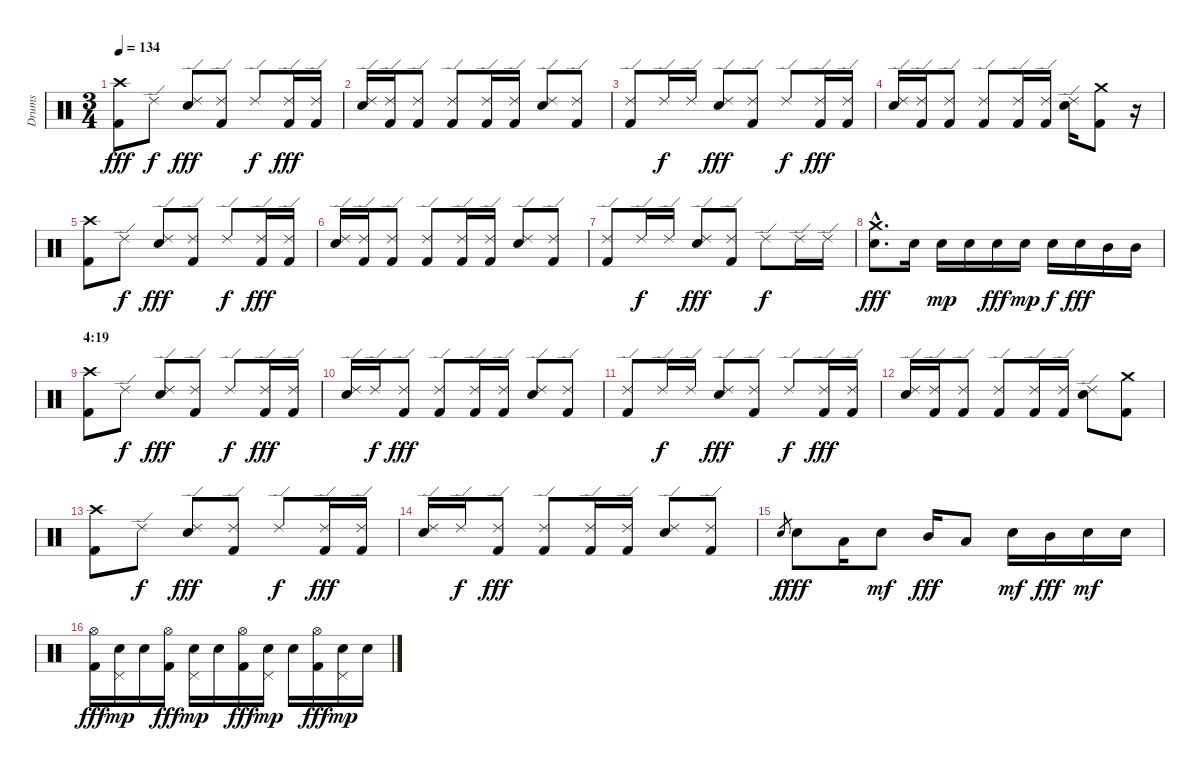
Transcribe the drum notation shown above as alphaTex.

\track ("Drums" "Drums") {instrument percussion}
\staff {score}
\articulation defaults
\ts (3 4)
\tempo 134
\clef neutral
\ks c
("Kick (hit) 2" "Crash high (hit)").8{dy fff} "Ride (edge) 2".8{dy f} ("Ride (edge) 2" "Snare (hit) 2").8{dy fff} ("Ride (edge) 2" "Kick (hit) 2").8 "Ride (edge) 2".8{dy f} ("Ride (edge) 2" "Kick (hit) 2").16{dy fff} ("Ride (edge) 2" "Kick (hit) 2").16 |
("Ride (edge) 2" "Snare (hit) 2").16 ("Ride (edge) 2" "Kick (hit) 2").16 ("Ride (edge) 2" "Kick (hit) 2").8 ("Ride (edge) 2" "Kick (hit) 2").8 ("Ride (edge) 2" "Kick (hit) 2").16 ("Ride (edge) 2" "Kick (hit) 2").16 ("Ride (edge) 2" "Snare (hit) 2").8 ("Ride (edge) 2" "Kick (hit) 2").8 |
("Ride (edge) 2" "Kick (hit) 2").8 "Ride (edge) 2".16{dy f} "Ride (edge) 2".16 ("Ride (edge) 2" "Snare (hit) 2").8{dy fff} ("Ride (edge) 2" "Kick (hit) 2").8 "Ride (edge) 2".8{dy f} ("Ride (edge) 2" "Kick (hit) 2").16{dy fff} ("Ride (edge) 2" "Kick (hit) 2").16 |
("Ride (edge) 2" "Snare (hit) 2").16 ("Ride (edge) 2" "Kick (hit) 2").16 ("Ride (edge) 2" "Kick (hit) 2").8 ("Ride (edge) 2" "Kick (hit) 2").8 ("Ride (edge) 2" "Kick (hit) 2").16 ("Ride (edge) 2" "Kick (hit) 2").16 ("Ride (edge) 2" "Snare (hit) 2").16 ("Crash medium (hit)" "Kick (hit) 2").8 r.16 |
("Kick (hit) 2" "Crash high (hit)").8 "Ride (edge) 2".8{dy f} ("Ride (edge) 2" "Snare (hit) 2").8{dy fff} ("Ride (edge) 2" "Kick (hit) 2").8 "Ride (edge) 2".8{dy f} ("Ride (edge) 2" "Kick (hit) 2").16{dy fff} ("Ride (edge) 2" "Kick (hit) 2").16 |
("Ride (edge) 2" "Snare (hit) 2").16 ("Ride (edge) 2" "Kick (hit) 2").16 ("Ride (edge) 2" "Kick (hit) 2").8 ("Ride (edge) 2" "Kick (hit) 2").8 ("Ride (edge) 2" "Kick (hit) 2").16 ("Ride (edge) 2" "Kick (hit) 2").16 ("Ride (edge) 2" "Snare (hit) 2").8 ("Ride (edge) 2" "Kick (hit) 2").8 |
("Ride (edge) 2" "Kick (hit) 2").8 "Ride (edge) 2".16{dy f} "Ride (edge) 2".16 ("Ride (edge) 2" "Snare (hit) 2").8{dy fff} ("Ride (edge) 2" "Kick (hit) 2").8 "Ride (edge) 2".8{dy f} "Ride (edge) 2".16 "Ride (edge) 2".16 |
("Crash medium (hit)"{hac} "Snare (hit) 2"{hac}).8{d dy fff} "Snare (hit) 2".16 "Snare (hit) 2".16{dy mp} "Snare (hit) 2".16 "Snare (hit) 2".16{dy fff} "Snare (hit) 2".16{dy mp} "Snare (hit) 2".16{dy f} "Snare (hit) 2".16{dy fff} "Mid Tom (hit)".16 "Mid Tom (hit)".16 |
\section ("" "4:19")
("Kick (hit) 2" "Crash high (hit)").8 "Ride (edge) 2".8{dy f} ("Ride (edge) 2" "Snare (hit) 2").8{dy fff} ("Ride (edge) 2" "Kick (hit) 2").8 "Ride (edge) 2".8{dy f} ("Ride (edge) 2" "Kick (hit) 2").16{dy fff} ("Ride (edge) 2" "Kick (hit) 2").16 |
("Ride (edge) 2" "Snare (hit) 2").16 "Ride (edge) 2".16{dy f} ("Ride (edge) 2" "Kick (hit) 2").8{dy fff} ("Ride (edge) 2" "Kick (hit) 2").8 ("Ride (edge) 2" "Kick (hit) 2").16 ("Ride (edge) 2" "Kick (hit) 2").16 ("Ride (edge) 2" "Snare (hit) 2").8 ("Ride (edge) 2" "Kick (hit) 2").8 |
("Ride (edge) 2" "Kick (hit) 2").8 "Ride (edge) 2".16{dy f} "Ride (edge) 2".16 ("Ride (edge) 2" "Snare (hit) 2").8{dy fff} ("Ride (edge) 2" "Kick (hit) 2").8 "Ride (edge) 2".8{dy f} ("Ride (edge) 2" "Kick (hit) 2").16{dy fff} ("Ride (edge) 2" "Kick (hit) 2").16 |
("Ride (edge) 2" "Snare (hit) 2").16 ("Ride (edge) 2" "Kick (hit) 2").16 ("Ride (edge) 2" "Kick (hit) 2").8 ("Ride (edge) 2" "Kick (hit) 2").8 ("Ride (edge) 2" "Kick (hit) 2").16 ("Ride (edge) 2" "Kick (hit) 2").16 ("Ride (edge) 2" "Snare (hit) 2").8 ("Crash medium (hit)" "Kick (hit) 2").8 |
("Kick (hit) 2" "Crash high (hit)").8 "Ride (edge) 2".8{dy f} ("Ride (edge) 2" "Snare (hit) 2").8{dy fff} ("Ride (edge) 2" "Kick (hit) 2").8 "Ride (edge) 2".8{dy f} ("Ride (edge) 2" "Kick (hit) 2").16{dy fff} ("Ride (edge) 2" "Kick (hit) 2").16 |
("Ride (edge) 2" "Snare (hit) 2").16 "Ride (edge) 2".16{dy f} ("Ride (edge) 2" "Kick (hit) 2").8{dy fff} ("Ride (edge) 2" "Kick (hit) 2").8 ("Ride (edge) 2" "Kick (hit) 2").16 ("Ride (edge) 2" "Kick (hit) 2").16 ("Ride (edge) 2" "Snare (hit) 2").8 ("Ride (edge) 2" "Kick (hit) 2").8 |
"Snare (hit) 2".8{gr dy f} "Snare (hit) 2".8{dy fff} "Low Tom (hit)".16 "Snare (hit) 2".8{dy mf} "Mid Tom (hit)".16{dy fff} "Low Tom (hit)".8 "Snare (hit) 2".16{dy mf} "Mid Tom (hit)".16{dy fff} "Snare (hit) 2".16{dy mf} "Snare (hit) 2".16 |
("Hi-Hat (open)" "Kick (hit) 2").16{dy fff} ("Pedal Hi-Hat (hit)" "Snare (hit) 2").16{dy mp} "Snare (hit) 2".16 ("Hi-Hat (open)" "Kick (hit) 2").16{dy fff} ("Pedal Hi-Hat (hit)" "Snare (hit) 2").16{dy mp} "Snare (hit) 2".16 ("Hi-Hat (open)" "Kick (hit) 2").16{dy fff} ("Pedal Hi-Hat (hit)" "Snare (hit) 2").16{dy mp} "Snare (hit) 2".16 ("Hi-Hat (open)" "Kick (hit) 2").16{dy fff} ("Pedal Hi-Hat (hit)" "Snare (hit) 2").16{dy mp} "Snare (hit) 2".16
